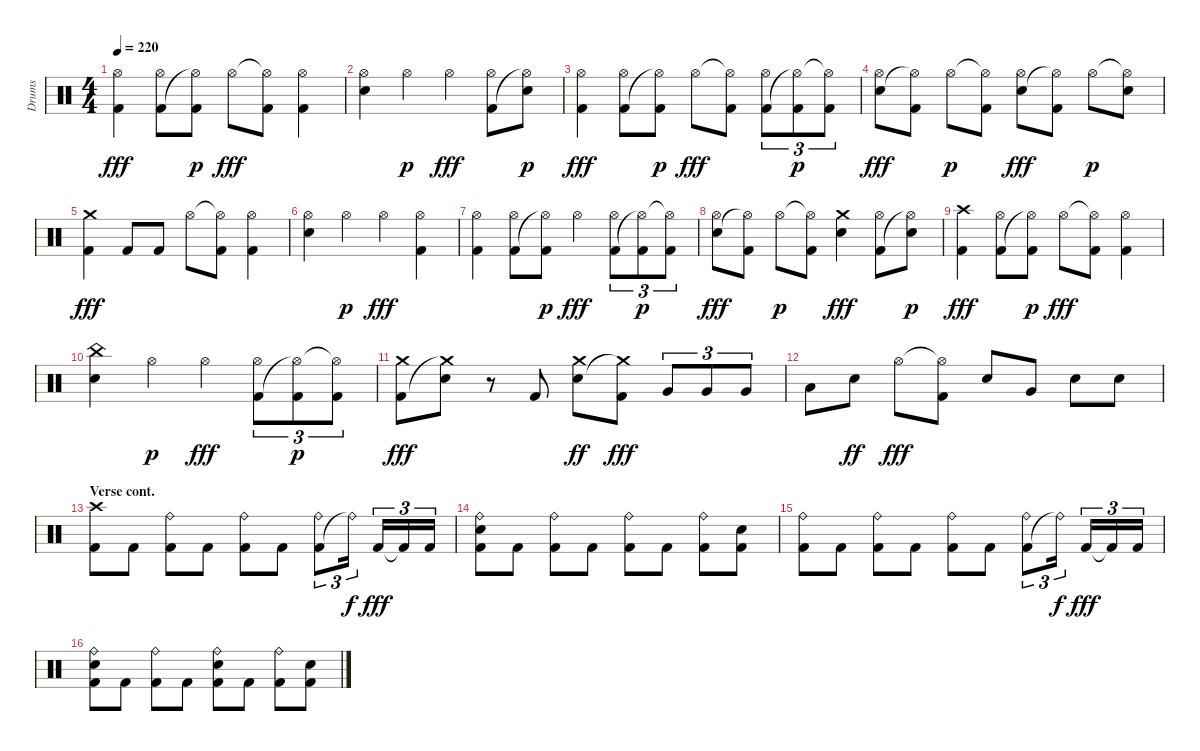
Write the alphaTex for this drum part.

\track ("Drums" "Drums") {instrument percussion}
\staff {score}
\articulation defaults
\ts (4 4)
\tempo 220
\clef neutral
\ks aminor
("Kick (hit) 2" "Hi-Hat (open)").4{dy fff} ("Kick (hit) 2" "Hi-Hat (open)").8 ("Hi-Hat (open)"{t} "Kick (hit) 2").8{dy p} "Hi-Hat (open)".8{dy fff} ("Hi-Hat (open)"{t} "Kick (hit) 2").8 ("Kick (hit) 2" "Hi-Hat (open)").4 |
("Snare (hit) 2" "Hi-Hat (open)").4 "Hi-Hat (open)".4{dy p} "Hi-Hat (open)".4{dy fff} ("Kick (hit) 2" "Hi-Hat (open)").8 ("Hi-Hat (open)"{t} "Snare (hit) 2").8{dy p} |
("Kick (hit) 2" "Hi-Hat (open)").4{dy fff} ("Kick (hit) 2" "Hi-Hat (open)").8 ("Hi-Hat (open)"{t} "Kick (hit) 2").8{dy p} "Hi-Hat (open)".8{dy fff} ("Hi-Hat (open)"{t} "Kick (hit) 2").8 ("Kick (hit) 2" "Hi-Hat (open)").8{tu (3 2)} ("Hi-Hat (open)"{t} "Kick (hit) 2").8{tu (3 2) dy p} ("Hi-Hat (open)"{t} "Kick (hit) 2").8{tu (3 2)} |
("Snare (hit) 2" "Hi-Hat (open)").8{dy fff} ("Hi-Hat (open)"{t} "Kick (hit) 2").8 "Hi-Hat (open)".8{dy p} ("Hi-Hat (open)"{t} "Kick (hit) 2").8 ("Snare (hit) 2" "Hi-Hat (open)").8{dy fff} ("Hi-Hat (open)"{t} "Kick (hit) 2").8 "Hi-Hat (open)".8{dy p} ("Hi-Hat (open)"{t} "Snare (hit) 2").8 |
("Kick (hit) 2" "Crash medium (hit)").4{dy fff} "Kick (hit) 2".8 "Kick (hit) 2".8 "Hi-Hat (open)".8 ("Hi-Hat (open)"{t} "Kick (hit) 2").8 ("Kick (hit) 2" "Hi-Hat (open)").4 |
("Snare (hit) 2" "Hi-Hat (open)").4 "Hi-Hat (open)".4{dy p} "Hi-Hat (open)".4{dy fff} ("Kick (hit) 2" "Hi-Hat (open)").4 |
("Kick (hit) 2" "Hi-Hat (open)").4 ("Kick (hit) 2" "Hi-Hat (open)").8 ("Hi-Hat (open)"{t} "Kick (hit) 2").8{dy p} "Hi-Hat (open)".4{dy fff} ("Kick (hit) 2" "Hi-Hat (open)").8{tu (3 2)} ("Hi-Hat (open)"{t} "Kick (hit) 2").8{tu (3 2) dy p} ("Hi-Hat (open)"{t} "Kick (hit) 2").8{tu (3 2)} |
("Snare (hit) 2" "Hi-Hat (open)").8{dy fff} ("Hi-Hat (open)"{t} "Kick (hit) 2").8 "Hi-Hat (open)".8{dy p} ("Hi-Hat (open)"{t} "Kick (hit) 2").8 ("Snare (hit) 2" "Crash medium (hit)").4{dy fff} ("Kick (hit) 2" "Hi-Hat (open)").8 ("Hi-Hat (open)"{t} "Snare (hit) 2").8{dy p} |
("Kick (hit) 2" "Crash high (hit)").4{dy fff} ("Kick (hit) 2" "Hi-Hat (open)").8 ("Hi-Hat (open)"{t} "Kick (hit) 2").8{dy p} "Hi-Hat (open)".8{dy fff} ("Hi-Hat (open)"{t} "Kick (hit) 2").8 ("Kick (hit) 2" "Hi-Hat (open)").4 |
("Snare (hit) 2" "China (hit)").4 "Hi-Hat (open)".4{dy p} "Hi-Hat (open)".4{dy fff} ("Kick (hit) 2" "Hi-Hat (open)").8{tu (3 2)} ("Hi-Hat (open)"{t} "Kick (hit) 2").8{tu (3 2) dy p} ("Hi-Hat (open)"{t} "Kick (hit) 2").8{tu (3 2)} |
("Kick (hit) 2" "Crash medium (hit)").8{dy fff} ("Crash medium (hit)"{t} "Snare (hit) 2").8 r.8 "Kick (hit) 2".8 ("Snare (hit) 2" "Crash medium (hit)").8{dy ff} ("Crash medium (hit)"{t} "Kick (hit) 2").8{dy fff} "Very Low Tom (hit)".8{tu (3 2)} "Very Low Tom (hit)".8{tu (3 2)} "Very Low Tom (hit)".8{tu (3 2)} |
"Low Floor Tom (hit)".8 "Snare (hit) 2".8{dy ff} "Hi-Hat (open)".8{dy fff} ("Hi-Hat (open)"{t} "Kick (hit) 2").8 "Snare (hit) 2".8 "Very Low Tom (hit)".8 "Snare (hit) 2".8 "Snare (hit) 2".8 |
\section ("" "Verse cont.")
("Kick (hit) 2" "Crash high (hit)").8 "Kick (hit) 2".8 ("Kick (hit) 2" "Ride (bell)").8 "Kick (hit) 2".8 ("Kick (hit) 2" "Ride (bell)").8 "Kick (hit) 2".8 ("Kick (hit) 2" "Ride (bell)").8{tu (3 2)} "Ride (bell)"{t}.16{tu (3 2) dy f} "Kick (hit) 2".16{tu (3 2) dy fff} "Kick (hit) 2"{t}.16{tu (3 2)} "Kick (hit) 2".16{tu (3 2)} |
("Kick (hit) 2" "Snare (hit) 2" "Ride (bell)").8 "Kick (hit) 2".8 ("Kick (hit) 2" "Ride (bell)").8 "Kick (hit) 2".8 ("Kick (hit) 2" "Ride (bell)").8 "Kick (hit) 2".8 ("Kick (hit) 2" "Ride (bell)").8 ("Kick (hit) 2" "Snare (hit) 2").8 |
("Kick (hit) 2" "Ride (bell)").8 "Kick (hit) 2".8 ("Kick (hit) 2" "Ride (bell)").8 "Kick (hit) 2".8 ("Kick (hit) 2" "Ride (bell)").8 "Kick (hit) 2".8 ("Kick (hit) 2" "Ride (bell)").8{tu (3 2)} "Ride (bell)"{t}.16{tu (3 2) dy f} "Kick (hit) 2".16{tu (3 2) dy fff} "Kick (hit) 2"{t}.16{tu (3 2)} "Kick (hit) 2".16{tu (3 2)} |
("Kick (hit) 2" "Snare (hit) 2" "Ride (bell)").8 "Kick (hit) 2".8 ("Kick (hit) 2" "Ride (bell)").8 "Kick (hit) 2".8 ("Kick (hit) 2" "Snare (hit) 2" "Ride (bell)").8 "Kick (hit) 2".8 ("Kick (hit) 2" "Ride (bell)").8 ("Kick (hit) 2" "Snare (hit) 2").8
